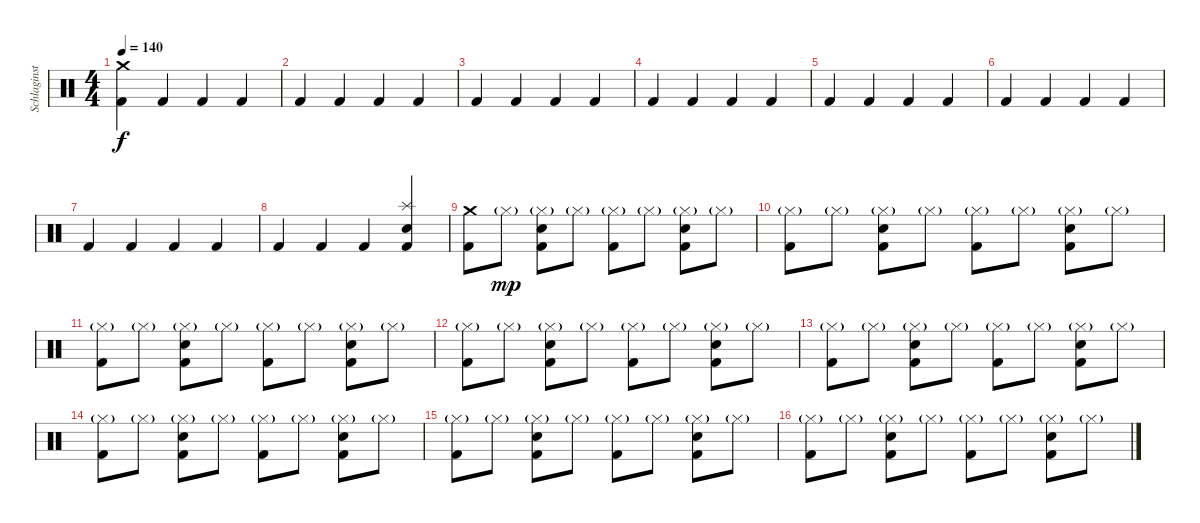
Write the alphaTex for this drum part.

\track ("Schlaginstrumente - Auswahl" "Schlaginst") {instrument percussion}
\staff {score}
\articulation defaults
\ts (4 4)
\tempo 140
\clef neutral
\ks c
("Crash medium (hit)" "Kick (hit) 2").4{dy f} "Kick (hit) 2".4 "Kick (hit) 2".4 "Kick (hit) 2".4 |
"Kick (hit) 2".4 "Kick (hit) 2".4 "Kick (hit) 2".4 "Kick (hit) 2".4 |
"Kick (hit) 2".4 "Kick (hit) 2".4 "Kick (hit) 2".4 "Kick (hit) 2".4 |
"Kick (hit) 2".4 "Kick (hit) 2".4 "Kick (hit) 2".4 "Kick (hit) 2".4 |
"Kick (hit) 2".4 "Kick (hit) 2".4 "Kick (hit) 2".4 "Kick (hit) 2".4 |
"Kick (hit) 2".4 "Kick (hit) 2".4 "Kick (hit) 2".4 "Kick (hit) 2".4 |
"Kick (hit) 2".4 "Kick (hit) 2".4 "Kick (hit) 2".4 "Kick (hit) 2".4 |
"Kick (hit) 2".4 "Kick (hit) 2".4 "Kick (hit) 2".4 ("Splash (hit)" "Electric Snare (hit)" "Kick (hit) 2").4 |
("Crash medium (hit)" "Kick (hit) 2").8 "Hi-Hat (closed)"{g}.8{dy mp} ("Hi-Hat (closed)"{g} "Electric Snare (hit)" "Kick (hit) 2").8 "Hi-Hat (closed)"{g}.8 ("Hi-Hat (closed)"{g} "Kick (hit) 2").8 "Hi-Hat (closed)"{g}.8 ("Hi-Hat (closed)"{g} "Electric Snare (hit)" "Kick (hit) 2").8 "Hi-Hat (closed)"{g}.8 |
("Hi-Hat (closed)"{g} "Kick (hit) 2").8 "Hi-Hat (closed)"{g}.8 ("Hi-Hat (closed)"{g} "Electric Snare (hit)" "Kick (hit) 2").8 "Hi-Hat (closed)"{g}.8 ("Hi-Hat (closed)"{g} "Kick (hit) 2").8 "Hi-Hat (closed)"{g}.8 ("Hi-Hat (closed)"{g} "Electric Snare (hit)" "Kick (hit) 2").8 "Hi-Hat (closed)"{g}.8 |
("Hi-Hat (closed)"{g} "Kick (hit) 2").8 "Hi-Hat (closed)"{g}.8 ("Hi-Hat (closed)"{g} "Electric Snare (hit)" "Kick (hit) 2").8 "Hi-Hat (closed)"{g}.8 ("Hi-Hat (closed)"{g} "Kick (hit) 2").8 "Hi-Hat (closed)"{g}.8 ("Hi-Hat (closed)"{g} "Electric Snare (hit)" "Kick (hit) 2").8 "Hi-Hat (closed)"{g}.8 |
("Hi-Hat (closed)"{g} "Kick (hit) 2").8 "Hi-Hat (closed)"{g}.8 ("Hi-Hat (closed)"{g} "Electric Snare (hit)" "Kick (hit) 2").8 "Hi-Hat (closed)"{g}.8 ("Hi-Hat (closed)"{g} "Kick (hit) 2").8 "Hi-Hat (closed)"{g}.8 ("Hi-Hat (closed)"{g} "Electric Snare (hit)" "Kick (hit) 2").8 "Hi-Hat (closed)"{g}.8 |
("Hi-Hat (closed)"{g} "Kick (hit) 2").8 "Hi-Hat (closed)"{g}.8 ("Hi-Hat (closed)"{g} "Electric Snare (hit)" "Kick (hit) 2").8 "Hi-Hat (closed)"{g}.8 ("Hi-Hat (closed)"{g} "Kick (hit) 2").8 "Hi-Hat (closed)"{g}.8 ("Hi-Hat (closed)"{g} "Electric Snare (hit)" "Kick (hit) 2").8 "Hi-Hat (closed)"{g}.8 |
("Hi-Hat (closed)"{g} "Kick (hit) 2").8 "Hi-Hat (closed)"{g}.8 ("Hi-Hat (closed)"{g} "Electric Snare (hit)" "Kick (hit) 2").8 "Hi-Hat (closed)"{g}.8 ("Hi-Hat (closed)"{g} "Kick (hit) 2").8 "Hi-Hat (closed)"{g}.8 ("Hi-Hat (closed)"{g} "Electric Snare (hit)" "Kick (hit) 2").8 "Hi-Hat (closed)"{g}.8 |
("Hi-Hat (closed)"{g} "Kick (hit) 2").8 "Hi-Hat (closed)"{g}.8 ("Hi-Hat (closed)"{g} "Electric Snare (hit)" "Kick (hit) 2").8 "Hi-Hat (closed)"{g}.8 ("Hi-Hat (closed)"{g} "Kick (hit) 2").8 "Hi-Hat (closed)"{g}.8 ("Hi-Hat (closed)"{g} "Electric Snare (hit)" "Kick (hit) 2").8 "Hi-Hat (closed)"{g}.8 |
("Hi-Hat (closed)"{g} "Kick (hit) 2").8 "Hi-Hat (closed)"{g}.8 ("Hi-Hat (closed)"{g} "Electric Snare (hit)" "Kick (hit) 2").8 "Hi-Hat (closed)"{g}.8 ("Hi-Hat (closed)"{g} "Kick (hit) 2").8 "Hi-Hat (closed)"{g}.8 ("Hi-Hat (closed)"{g} "Electric Snare (hit)" "Kick (hit) 2").8 "Hi-Hat (closed)"{g}.8
